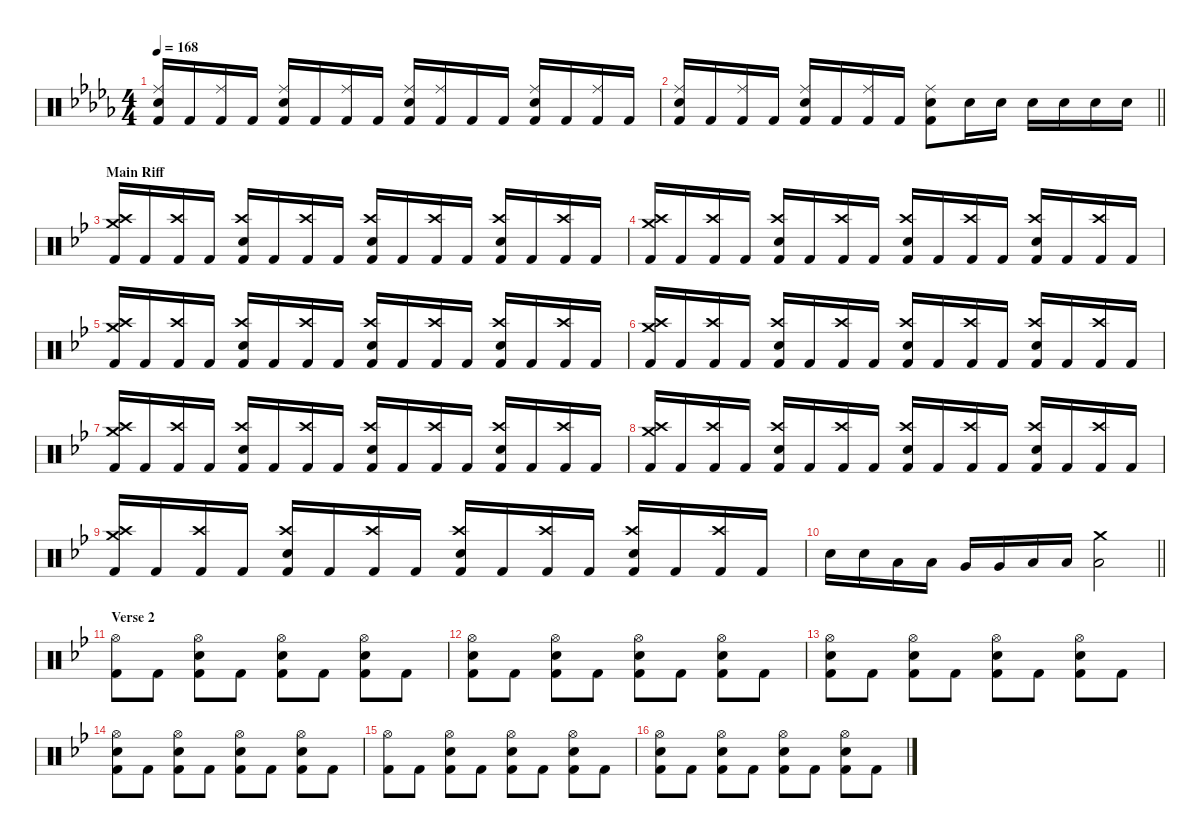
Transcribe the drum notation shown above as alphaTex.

\defaultSystemsLayout 4
\hideDynamics
\bracketExtendMode nobrackets
\singleTrackTrackNamePolicy hidden
\multiTrackTrackNamePolicy hidden
\firstSystemTrackNameMode fullname
\firstSystemTrackNameOrientation horizontal
\otherSystemsTrackNameOrientation horizontal
\track ("Percussion" "drm.") {instrument percussion}
\staff {score}
\articulation defaults
\ts (4 4)
\tempo 168
\clef neutral
\ks db
("Ride (middle)"{acc forcenatural} "Snare (hit) 2"{acc forcenatural} "Kick (hit) 2"{acc forcenatural}).16{dy f beam Up} "Kick (hit) 2"{acc forcenatural}.16{beam Up} ("Ride (middle)"{acc forcenatural} "Kick (hit) 2"{acc forcenatural}).16{beam Up} "Kick (hit) 2"{acc forcenatural}.16{beam Up} ("Ride (middle)"{acc forcenatural} "Snare (hit) 2"{acc forcenatural} "Kick (hit) 2"{acc forcenatural}).16{beam Up} "Kick (hit) 2"{acc forcenatural}.16{beam Up} ("Ride (middle)"{acc forcenatural} "Kick (hit) 2"{acc forcenatural}).16{beam Up} "Kick (hit) 2"{acc forcenatural}.16{beam Up} ("Ride (middle)"{acc forcenatural} "Snare (hit) 2"{acc forcenatural} "Kick (hit) 2"{acc forcenatural}).16{beam Up} ("Ride (middle)"{acc forcenatural} "Kick (hit) 2"{acc forcenatural}).16{beam Up} "Kick (hit) 2"{acc forcenatural}.16{beam Up} "Kick (hit) 2"{acc forcenatural}.16{beam Up} ("Ride (middle)"{acc forcenatural} "Snare (hit) 2"{acc forcenatural} "Kick (hit) 2"{acc forcenatural}).16{beam Up} "Kick (hit) 2"{acc forcenatural}.16{beam Up} ("Ride (middle)"{acc forcenatural} "Kick (hit) 2"{acc forcenatural}).16{beam Up} "Kick (hit) 2"{acc forcenatural}.16{beam Up} |
\barLineRight lightlight
("Ride (middle)"{acc forcenatural} "Snare (hit) 2"{acc forcenatural} "Kick (hit) 2"{acc forcenatural}).16{beam Up} "Kick (hit) 2"{acc forcenatural}.16{beam Up} ("Ride (middle)"{acc forcenatural} "Kick (hit) 2"{acc forcenatural}).16{beam Up} "Kick (hit) 2"{acc forcenatural}.16{beam Up} ("Ride (middle)"{acc forcenatural} "Snare (hit) 2"{acc forcenatural} "Kick (hit) 2"{acc forcenatural}).16{beam Up} "Kick (hit) 2"{acc forcenatural}.16{beam Up} ("Ride (middle)"{acc forcenatural} "Kick (hit) 2"{acc forcenatural}).16{beam Up} "Kick (hit) 2"{acc forcenatural}.16{beam Up} ("Ride (middle)"{acc forcenatural} "Snare (hit) 2"{acc forcenatural} "Kick (hit) 2"{acc forcenatural}).8{beam Down} "Snare (hit) 2"{acc forcenatural}.16{beam Down} "Snare (hit) 2"{acc forcenatural}.16{beam Down} "Snare (hit) 2"{acc forcenatural}.16{beam Down} "Snare (hit) 2"{acc forcenatural}.16{beam Down} "Snare (hit) 2"{acc forcenatural}.16{beam Down} "Snare (hit) 2"{acc forcenatural}.16{beam Down} |
\section ("" "Main Riff")
\ks bb
("Crash high (hit)"{acc forcenatural} "Crash medium (hit)"{acc forcenatural} "Kick (hit) 2"{acc forcenatural}).16{beam Up} "Kick (hit) 2"{acc forcenatural}.16{beam Up} ("Crash high (hit)"{acc forcenatural} "Kick (hit) 2"{acc forcenatural}).16{beam Up} "Kick (hit) 2"{acc forcenatural}.16{beam Up} ("Crash high (hit)"{acc forcenatural} "Snare (hit) 2"{acc forcenatural} "Kick (hit) 2"{acc forcenatural}).16{beam Up} "Kick (hit) 2"{acc forcenatural}.16{beam Up} ("Crash high (hit)"{acc forcenatural} "Kick (hit) 2"{acc forcenatural}).16{beam Up} "Kick (hit) 2"{acc forcenatural}.16{beam Up} ("Crash high (hit)"{acc forcenatural} "Snare (hit) 2"{acc forcenatural} "Kick (hit) 2"{acc forcenatural}).16{beam Up} "Kick (hit) 2"{acc forcenatural}.16{beam Up} ("Crash high (hit)"{acc forcenatural} "Kick (hit) 2"{acc forcenatural}).16{beam Up} "Kick (hit) 2"{acc forcenatural}.16{beam Up} ("Crash high (hit)"{acc forcenatural} "Snare (hit) 2"{acc forcenatural} "Kick (hit) 2"{acc forcenatural}).16{beam Up} "Kick (hit) 2"{acc forcenatural}.16{beam Up} ("Crash high (hit)"{acc forcenatural} "Kick (hit) 2"{acc forcenatural}).16{beam Up} "Kick (hit) 2"{acc forcenatural}.16{beam Up} |
("Crash high (hit)"{acc forcenatural} "Crash medium (hit)"{acc forcenatural} "Kick (hit) 2"{acc forcenatural}).16{beam Up} "Kick (hit) 2"{acc forcenatural}.16{beam Up} ("Crash high (hit)"{acc forcenatural} "Kick (hit) 2"{acc forcenatural}).16{beam Up} "Kick (hit) 2"{acc forcenatural}.16{beam Up} ("Crash high (hit)"{acc forcenatural} "Snare (hit) 2"{acc forcenatural} "Kick (hit) 2"{acc forcenatural}).16{beam Up} "Kick (hit) 2"{acc forcenatural}.16{beam Up} ("Crash high (hit)"{acc forcenatural} "Kick (hit) 2"{acc forcenatural}).16{beam Up} "Kick (hit) 2"{acc forcenatural}.16{beam Up} ("Crash high (hit)"{acc forcenatural} "Snare (hit) 2"{acc forcenatural} "Kick (hit) 2"{acc forcenatural}).16{beam Up} "Kick (hit) 2"{acc forcenatural}.16{beam Up} ("Crash high (hit)"{acc forcenatural} "Kick (hit) 2"{acc forcenatural}).16{beam Up} "Kick (hit) 2"{acc forcenatural}.16{beam Up} ("Crash high (hit)"{acc forcenatural} "Snare (hit) 2"{acc forcenatural} "Kick (hit) 2"{acc forcenatural}).16{beam Up} "Kick (hit) 2"{acc forcenatural}.16{beam Up} ("Crash high (hit)"{acc forcenatural} "Kick (hit) 2"{acc forcenatural}).16{beam Up} "Kick (hit) 2"{acc forcenatural}.16{beam Up} |
("Crash high (hit)"{acc forcenatural} "Crash medium (hit)"{acc forcenatural} "Kick (hit) 2"{acc forcenatural}).16{beam Up} "Kick (hit) 2"{acc forcenatural}.16{beam Up} ("Crash high (hit)"{acc forcenatural} "Kick (hit) 2"{acc forcenatural}).16{beam Up} "Kick (hit) 2"{acc forcenatural}.16{beam Up} ("Crash high (hit)"{acc forcenatural} "Snare (hit) 2"{acc forcenatural} "Kick (hit) 2"{acc forcenatural}).16{beam Up} "Kick (hit) 2"{acc forcenatural}.16{beam Up} ("Crash high (hit)"{acc forcenatural} "Kick (hit) 2"{acc forcenatural}).16{beam Up} "Kick (hit) 2"{acc forcenatural}.16{beam Up} ("Crash high (hit)"{acc forcenatural} "Snare (hit) 2"{acc forcenatural} "Kick (hit) 2"{acc forcenatural}).16{beam Up} "Kick (hit) 2"{acc forcenatural}.16{beam Up} ("Crash high (hit)"{acc forcenatural} "Kick (hit) 2"{acc forcenatural}).16{beam Up} "Kick (hit) 2"{acc forcenatural}.16{beam Up} ("Crash high (hit)"{acc forcenatural} "Snare (hit) 2"{acc forcenatural} "Kick (hit) 2"{acc forcenatural}).16{beam Up} "Kick (hit) 2"{acc forcenatural}.16{beam Up} ("Crash high (hit)"{acc forcenatural} "Kick (hit) 2"{acc forcenatural}).16{beam Up} "Kick (hit) 2"{acc forcenatural}.16{beam Up} |
("Crash high (hit)"{acc forcenatural} "Crash medium (hit)"{acc forcenatural} "Kick (hit) 2"{acc forcenatural}).16{beam Up} "Kick (hit) 2"{acc forcenatural}.16{beam Up} ("Crash high (hit)"{acc forcenatural} "Kick (hit) 2"{acc forcenatural}).16{beam Up} "Kick (hit) 2"{acc forcenatural}.16{beam Up} ("Crash high (hit)"{acc forcenatural} "Snare (hit) 2"{acc forcenatural} "Kick (hit) 2"{acc forcenatural}).16{beam Up} "Kick (hit) 2"{acc forcenatural}.16{beam Up} ("Crash high (hit)"{acc forcenatural} "Kick (hit) 2"{acc forcenatural}).16{beam Up} "Kick (hit) 2"{acc forcenatural}.16{beam Up} ("Crash high (hit)"{acc forcenatural} "Snare (hit) 2"{acc forcenatural} "Kick (hit) 2"{acc forcenatural}).16{beam Up} "Kick (hit) 2"{acc forcenatural}.16{beam Up} ("Crash high (hit)"{acc forcenatural} "Kick (hit) 2"{acc forcenatural}).16{beam Up} "Kick (hit) 2"{acc forcenatural}.16{beam Up} ("Crash high (hit)"{acc forcenatural} "Snare (hit) 2"{acc forcenatural} "Kick (hit) 2"{acc forcenatural}).16{beam Up} "Kick (hit) 2"{acc forcenatural}.16{beam Up} ("Crash high (hit)"{acc forcenatural} "Kick (hit) 2"{acc forcenatural}).16{beam Up} "Kick (hit) 2"{acc forcenatural}.16{beam Up} |
("Crash high (hit)"{acc forcenatural} "Crash medium (hit)"{acc forcenatural} "Kick (hit) 2"{acc forcenatural}).16{beam Up} "Kick (hit) 2"{acc forcenatural}.16{beam Up} ("Crash high (hit)"{acc forcenatural} "Kick (hit) 2"{acc forcenatural}).16{beam Up} "Kick (hit) 2"{acc forcenatural}.16{beam Up} ("Crash high (hit)"{acc forcenatural} "Snare (hit) 2"{acc forcenatural} "Kick (hit) 2"{acc forcenatural}).16{beam Up} "Kick (hit) 2"{acc forcenatural}.16{beam Up} ("Crash high (hit)"{acc forcenatural} "Kick (hit) 2"{acc forcenatural}).16{beam Up} "Kick (hit) 2"{acc forcenatural}.16{beam Up} ("Crash high (hit)"{acc forcenatural} "Snare (hit) 2"{acc forcenatural} "Kick (hit) 2"{acc forcenatural}).16{beam Up} "Kick (hit) 2"{acc forcenatural}.16{beam Up} ("Crash high (hit)"{acc forcenatural} "Kick (hit) 2"{acc forcenatural}).16{beam Up} "Kick (hit) 2"{acc forcenatural}.16{beam Up} ("Crash high (hit)"{acc forcenatural} "Snare (hit) 2"{acc forcenatural} "Kick (hit) 2"{acc forcenatural}).16{beam Up} "Kick (hit) 2"{acc forcenatural}.16{beam Up} ("Crash high (hit)"{acc forcenatural} "Kick (hit) 2"{acc forcenatural}).16{beam Up} "Kick (hit) 2"{acc forcenatural}.16{beam Up} |
("Crash high (hit)"{acc forcenatural} "Crash medium (hit)"{acc forcenatural} "Kick (hit) 2"{acc forcenatural}).16{beam Up} "Kick (hit) 2"{acc forcenatural}.16{beam Up} ("Crash high (hit)"{acc forcenatural} "Kick (hit) 2"{acc forcenatural}).16{beam Up} "Kick (hit) 2"{acc forcenatural}.16{beam Up} ("Crash high (hit)"{acc forcenatural} "Snare (hit) 2"{acc forcenatural} "Kick (hit) 2"{acc forcenatural}).16{beam Up} "Kick (hit) 2"{acc forcenatural}.16{beam Up} ("Crash high (hit)"{acc forcenatural} "Kick (hit) 2"{acc forcenatural}).16{beam Up} "Kick (hit) 2"{acc forcenatural}.16{beam Up} ("Crash high (hit)"{acc forcenatural} "Snare (hit) 2"{acc forcenatural} "Kick (hit) 2"{acc forcenatural}).16{beam Up} "Kick (hit) 2"{acc forcenatural}.16{beam Up} ("Crash high (hit)"{acc forcenatural} "Kick (hit) 2"{acc forcenatural}).16{beam Up} "Kick (hit) 2"{acc forcenatural}.16{beam Up} ("Crash high (hit)"{acc forcenatural} "Snare (hit) 2"{acc forcenatural} "Kick (hit) 2"{acc forcenatural}).16{beam Up} "Kick (hit) 2"{acc forcenatural}.16{beam Up} ("Crash high (hit)"{acc forcenatural} "Kick (hit) 2"{acc forcenatural}).16{beam Up} "Kick (hit) 2"{acc forcenatural}.16{beam Up} |
("Crash high (hit)"{acc forcenatural} "Crash medium (hit)"{acc forcenatural} "Kick (hit) 2"{acc forcenatural}).16{beam Up} "Kick (hit) 2"{acc forcenatural}.16{beam Up} ("Crash high (hit)"{acc forcenatural} "Kick (hit) 2"{acc forcenatural}).16{beam Up} "Kick (hit) 2"{acc forcenatural}.16{beam Up} ("Crash high (hit)"{acc forcenatural} "Snare (hit) 2"{acc forcenatural} "Kick (hit) 2"{acc forcenatural}).16{beam Up} "Kick (hit) 2"{acc forcenatural}.16{beam Up} ("Crash high (hit)"{acc forcenatural} "Kick (hit) 2"{acc forcenatural}).16{beam Up} "Kick (hit) 2"{acc forcenatural}.16{beam Up} ("Crash high (hit)"{acc forcenatural} "Snare (hit) 2"{acc forcenatural} "Kick (hit) 2"{acc forcenatural}).16{beam Up} "Kick (hit) 2"{acc forcenatural}.16{beam Up} ("Crash high (hit)"{acc forcenatural} "Kick (hit) 2"{acc forcenatural}).16{beam Up} "Kick (hit) 2"{acc forcenatural}.16{beam Up} ("Crash high (hit)"{acc forcenatural} "Snare (hit) 2"{acc forcenatural} "Kick (hit) 2"{acc forcenatural}).16{beam Up} "Kick (hit) 2"{acc forcenatural}.16{beam Up} ("Crash high (hit)"{acc forcenatural} "Kick (hit) 2"{acc forcenatural}).16{beam Up} "Kick (hit) 2"{acc forcenatural}.16{beam Up} |
\barLineRight lightlight "Snare (hit) 2"{acc forcenatural}.16{beam Down} "Snare (hit) 2"{acc forcenatural}.16{beam Down} "Low Tom (hit)"{acc forcenatural}.16{beam Down} "Low Tom (hit)"{acc forcenatural}.16{beam Down} "Very Low Tom (hit)"{acc forcenatural}.16{beam Up} "Very Low Tom (hit)"{acc forcenatural}.16{beam Up} "Low Floor Tom (hit)"{acc forcenatural}.16{beam Up} "Low Floor Tom (hit)"{acc forcenatural}.16{beam Up}
("Crash medium (hit)"{acc forcenatural} "Low Tom (hit)"{acc forcenatural}).2{beam Down} |
\section ("" "Verse 2")
("Hi-Hat (open)"{acc forcenatural} "Kick (hit) 2"{acc forcenatural}).8{beam Down} "Kick (hit) 2"{acc forcenatural}.8{beam Down} ("Hi-Hat (open)"{acc forcenatural} "Snare (hit) 2"{acc forcenatural} "Kick (hit) 2"{acc forcenatural}).8{beam Down} "Kick (hit) 2"{acc forcenatural}.8{beam Down} ("Hi-Hat (open)"{acc forcenatural} "Snare (hit) 2"{acc forcenatural} "Kick (hit) 2"{acc forcenatural}).8{beam Down} "Kick (hit) 2"{acc forcenatural}.8{beam Down} ("Hi-Hat (open)"{acc forcenatural} "Snare (hit) 2"{acc forcenatural} "Kick (hit) 2"{acc forcenatural}).8{beam Down} "Kick (hit) 2"{acc forcenatural}.8{beam Down} |
("Hi-Hat (open)"{acc forcenatural} "Snare (hit) 2"{acc forcenatural} "Kick (hit) 2"{acc forcenatural}).8{beam Down} "Kick (hit) 2"{acc forcenatural}.8{beam Down} ("Hi-Hat (open)"{acc forcenatural} "Snare (hit) 2"{acc forcenatural} "Kick (hit) 2"{acc forcenatural}).8{beam Down} "Kick (hit) 2"{acc forcenatural}.8{beam Down} ("Hi-Hat (open)"{acc forcenatural} "Snare (hit) 2"{acc forcenatural} "Kick (hit) 2"{acc forcenatural}).8{beam Down} "Kick (hit) 2"{acc forcenatural}.8{beam Down} ("Hi-Hat (open)"{acc forcenatural} "Snare (hit) 2"{acc forcenatural} "Kick (hit) 2"{acc forcenatural}).8{beam Down} "Kick (hit) 2"{acc forcenatural}.8{beam Down} |
("Hi-Hat (open)"{acc forcenatural} "Snare (hit) 2"{acc forcenatural} "Kick (hit) 2"{acc forcenatural}).8{beam Down} "Kick (hit) 2"{acc forcenatural}.8{beam Down} ("Hi-Hat (open)"{acc forcenatural} "Snare (hit) 2"{acc forcenatural} "Kick (hit) 2"{acc forcenatural}).8{beam Down} "Kick (hit) 2"{acc forcenatural}.8{beam Down} ("Hi-Hat (open)"{acc forcenatural} "Snare (hit) 2"{acc forcenatural} "Kick (hit) 2"{acc forcenatural}).8{beam Down} "Kick (hit) 2"{acc forcenatural}.8{beam Down} ("Hi-Hat (open)"{acc forcenatural} "Snare (hit) 2"{acc forcenatural} "Kick (hit) 2"{acc forcenatural}).8{beam Down} "Kick (hit) 2"{acc forcenatural}.8{beam Down} |
("Hi-Hat (open)"{acc forcenatural} "Snare (hit) 2"{acc forcenatural} "Kick (hit) 2"{acc forcenatural}).8{beam Down} "Kick (hit) 2"{acc forcenatural}.8{beam Down} ("Hi-Hat (open)"{acc forcenatural} "Snare (hit) 2"{acc forcenatural} "Kick (hit) 2"{acc forcenatural}).8{beam Down} "Kick (hit) 2"{acc forcenatural}.8{beam Down} ("Hi-Hat (open)"{acc forcenatural} "Snare (hit) 2"{acc forcenatural} "Kick (hit) 2"{acc forcenatural}).8{beam Down} "Kick (hit) 2"{acc forcenatural}.8{beam Down} ("Hi-Hat (open)"{acc forcenatural} "Snare (hit) 2"{acc forcenatural} "Kick (hit) 2"{acc forcenatural}).8{beam Down} "Kick (hit) 2"{acc forcenatural}.8{beam Down} |
("Hi-Hat (open)"{acc forcenatural} "Kick (hit) 2"{acc forcenatural}).8{beam Down} "Kick (hit) 2"{acc forcenatural}.8{beam Down} ("Hi-Hat (open)"{acc forcenatural} "Snare (hit) 2"{acc forcenatural} "Kick (hit) 2"{acc forcenatural}).8{beam Down} "Kick (hit) 2"{acc forcenatural}.8{beam Down} ("Hi-Hat (open)"{acc forcenatural} "Snare (hit) 2"{acc forcenatural} "Kick (hit) 2"{acc forcenatural}).8{beam Down} "Kick (hit) 2"{acc forcenatural}.8{beam Down} ("Hi-Hat (open)"{acc forcenatural} "Snare (hit) 2"{acc forcenatural} "Kick (hit) 2"{acc forcenatural}).8{beam Down} "Kick (hit) 2"{acc forcenatural}.8{beam Down} |
("Hi-Hat (open)"{acc forcenatural} "Snare (hit) 2"{acc forcenatural} "Kick (hit) 2"{acc forcenatural}).8{beam Down} "Kick (hit) 2"{acc forcenatural}.8{beam Down} ("Hi-Hat (open)"{acc forcenatural} "Snare (hit) 2"{acc forcenatural} "Kick (hit) 2"{acc forcenatural}).8{beam Down} "Kick (hit) 2"{acc forcenatural}.8{beam Down} ("Hi-Hat (open)"{acc forcenatural} "Snare (hit) 2"{acc forcenatural} "Kick (hit) 2"{acc forcenatural}).8{beam Down} "Kick (hit) 2"{acc forcenatural}.8{beam Down} ("Hi-Hat (open)"{acc forcenatural} "Snare (hit) 2"{acc forcenatural} "Kick (hit) 2"{acc forcenatural}).8{beam Down} "Kick (hit) 2"{acc forcenatural}.8{beam Down}
